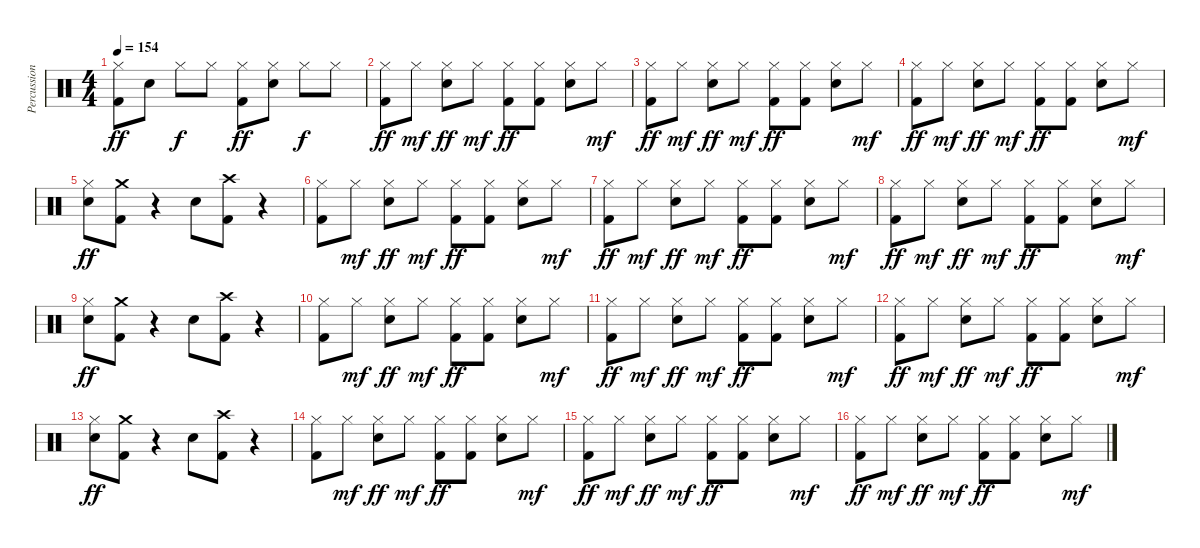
\track ("Percussions" "Percussion") {instrument percussion}
\staff {score}
\articulation defaults
\ts (4 4)
\tempo 154
\clef neutral
\ks c
("Hi-Hat (closed)" "Kick (hit) 2").8{dy ff} "Electric Snare (hit)".8 "Hi-Hat (closed)".8{dy f} "Hi-Hat (closed)".8 ("Hi-Hat (closed)" "Kick (hit) 2").8{dy ff} ("Hi-Hat (closed)" "Electric Snare (hit)").8 "Hi-Hat (closed)".8{dy f} "Hi-Hat (closed)".8 |
("Hi-Hat (closed)" "Kick (hit) 2").8{dy ff} "Hi-Hat (closed)".8{dy mf} ("Hi-Hat (closed)" "Electric Snare (hit)").8{dy ff} "Hi-Hat (closed)".8{dy mf} ("Hi-Hat (closed)" "Kick (hit) 2").8{dy ff} ("Hi-Hat (closed)" "Kick (hit) 2").8 ("Hi-Hat (closed)" "Electric Snare (hit)").8 "Hi-Hat (closed)".8{dy mf} |
("Hi-Hat (closed)" "Kick (hit) 2").8{dy ff} "Hi-Hat (closed)".8{dy mf} ("Hi-Hat (closed)" "Electric Snare (hit)").8{dy ff} "Hi-Hat (closed)".8{dy mf} ("Hi-Hat (closed)" "Kick (hit) 2").8{dy ff} ("Hi-Hat (closed)" "Kick (hit) 2").8 ("Hi-Hat (closed)" "Electric Snare (hit)").8 "Hi-Hat (closed)".8{dy mf} |
("Hi-Hat (closed)" "Kick (hit) 2").8{dy ff} "Hi-Hat (closed)".8{dy mf} ("Hi-Hat (closed)" "Electric Snare (hit)").8{dy ff} "Hi-Hat (closed)".8{dy mf} ("Hi-Hat (closed)" "Kick (hit) 2").8{dy ff} ("Hi-Hat (closed)" "Kick (hit) 2").8 ("Hi-Hat (closed)" "Electric Snare (hit)").8 "Hi-Hat (closed)".8{dy mf} |
("Hi-Hat (closed)" "Electric Snare (hit)").8{dy ff} ("Crash medium (hit)" "Kick (hit) 2").8 r.4 "Electric Snare (hit)".8 ("Crash high (hit)" "Kick (hit) 2").8 r.4 |
("Hi-Hat (closed)" "Kick (hit) 2").8 "Hi-Hat (closed)".8{dy mf} ("Hi-Hat (closed)" "Electric Snare (hit)").8{dy ff} "Hi-Hat (closed)".8{dy mf} ("Hi-Hat (closed)" "Kick (hit) 2").8{dy ff} ("Hi-Hat (closed)" "Kick (hit) 2").8 ("Hi-Hat (closed)" "Electric Snare (hit)").8 "Hi-Hat (closed)".8{dy mf} |
("Hi-Hat (closed)" "Kick (hit) 2").8{dy ff} "Hi-Hat (closed)".8{dy mf} ("Hi-Hat (closed)" "Electric Snare (hit)").8{dy ff} "Hi-Hat (closed)".8{dy mf} ("Hi-Hat (closed)" "Kick (hit) 2").8{dy ff} ("Hi-Hat (closed)" "Kick (hit) 2").8 ("Hi-Hat (closed)" "Electric Snare (hit)").8 "Hi-Hat (closed)".8{dy mf} |
("Hi-Hat (closed)" "Kick (hit) 2").8{dy ff} "Hi-Hat (closed)".8{dy mf} ("Hi-Hat (closed)" "Electric Snare (hit)").8{dy ff} "Hi-Hat (closed)".8{dy mf} ("Hi-Hat (closed)" "Kick (hit) 2").8{dy ff} ("Hi-Hat (closed)" "Kick (hit) 2").8 ("Hi-Hat (closed)" "Electric Snare (hit)").8 "Hi-Hat (closed)".8{dy mf} |
("Hi-Hat (closed)" "Electric Snare (hit)").8{dy ff} ("Crash medium (hit)" "Kick (hit) 2").8 r.4 "Electric Snare (hit)".8 ("Crash high (hit)" "Kick (hit) 2").8 r.4 |
("Hi-Hat (closed)" "Kick (hit) 2").8 "Hi-Hat (closed)".8{dy mf} ("Hi-Hat (closed)" "Electric Snare (hit)").8{dy ff} "Hi-Hat (closed)".8{dy mf} ("Hi-Hat (closed)" "Kick (hit) 2").8{dy ff} ("Hi-Hat (closed)" "Kick (hit) 2").8 ("Hi-Hat (closed)" "Electric Snare (hit)").8 "Hi-Hat (closed)".8{dy mf} |
("Hi-Hat (closed)" "Kick (hit) 2").8{dy ff} "Hi-Hat (closed)".8{dy mf} ("Hi-Hat (closed)" "Electric Snare (hit)").8{dy ff} "Hi-Hat (closed)".8{dy mf} ("Hi-Hat (closed)" "Kick (hit) 2").8{dy ff} ("Hi-Hat (closed)" "Kick (hit) 2").8 ("Hi-Hat (closed)" "Electric Snare (hit)").8 "Hi-Hat (closed)".8{dy mf} |
("Hi-Hat (closed)" "Kick (hit) 2").8{dy ff} "Hi-Hat (closed)".8{dy mf} ("Hi-Hat (closed)" "Electric Snare (hit)").8{dy ff} "Hi-Hat (closed)".8{dy mf} ("Hi-Hat (closed)" "Kick (hit) 2").8{dy ff} ("Hi-Hat (closed)" "Kick (hit) 2").8 ("Hi-Hat (closed)" "Electric Snare (hit)").8 "Hi-Hat (closed)".8{dy mf} |
("Hi-Hat (closed)" "Electric Snare (hit)").8{dy ff} ("Crash medium (hit)" "Kick (hit) 2").8 r.4 "Electric Snare (hit)".8 ("Crash high (hit)" "Kick (hit) 2").8 r.4 |
("Hi-Hat (closed)" "Kick (hit) 2").8 "Hi-Hat (closed)".8{dy mf} ("Hi-Hat (closed)" "Electric Snare (hit)").8{dy ff} "Hi-Hat (closed)".8{dy mf} ("Hi-Hat (closed)" "Kick (hit) 2").8{dy ff} ("Hi-Hat (closed)" "Kick (hit) 2").8 ("Hi-Hat (closed)" "Electric Snare (hit)").8 "Hi-Hat (closed)".8{dy mf} |
("Hi-Hat (closed)" "Kick (hit) 2").8{dy ff} "Hi-Hat (closed)".8{dy mf} ("Hi-Hat (closed)" "Electric Snare (hit)").8{dy ff} "Hi-Hat (closed)".8{dy mf} ("Hi-Hat (closed)" "Kick (hit) 2").8{dy ff} ("Hi-Hat (closed)" "Kick (hit) 2").8 ("Hi-Hat (closed)" "Electric Snare (hit)").8 "Hi-Hat (closed)".8{dy mf} |
("Hi-Hat (closed)" "Kick (hit) 2").8{dy ff} "Hi-Hat (closed)".8{dy mf} ("Hi-Hat (closed)" "Electric Snare (hit)").8{dy ff} "Hi-Hat (closed)".8{dy mf} ("Hi-Hat (closed)" "Kick (hit) 2").8{dy ff} ("Hi-Hat (closed)" "Kick (hit) 2").8 ("Hi-Hat (closed)" "Electric Snare (hit)").8 "Hi-Hat (closed)".8{dy mf}
